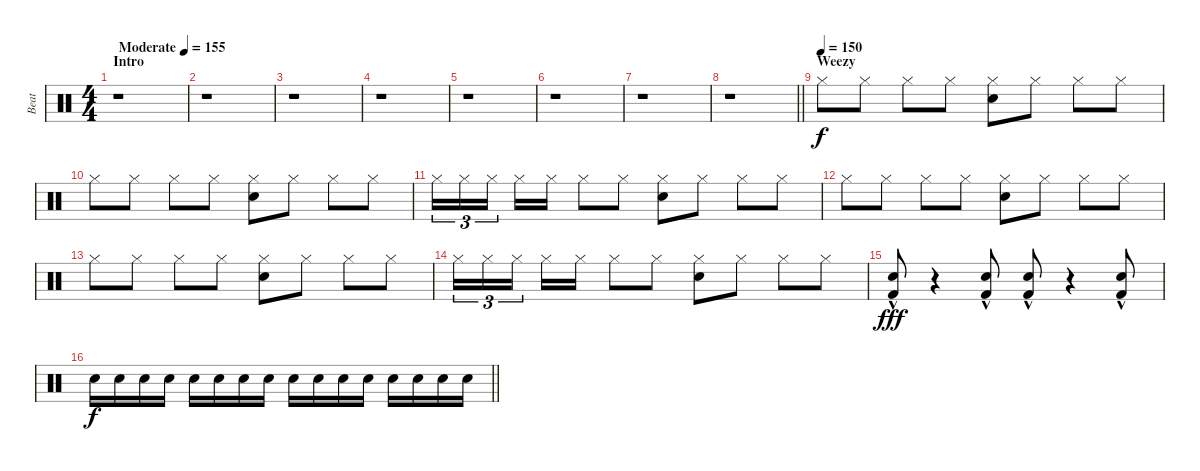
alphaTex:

\track ("Beat" "Beat") {instrument percussion}
\staff {score}
\articulation defaults
\ts (4 4)
\section ("" "Intro")
\tempo (155 "Moderate")
\clef neutral
\ks c
r.1{dy f} |
r.1 |
r.1 |
r.1 |
r.1 |
r.1 |
r.1 |
\barLineRight lightlight
r.1 |
\section ("" "Weezy")
\tempo (150)
"Hi-Hat (closed)".8 "Hi-Hat (closed)".8 "Hi-Hat (closed)".8 "Hi-Hat (closed)".8 ("Hi-Hat (closed)" "Hand Clap (hit)").8 "Hi-Hat (closed)".8 "Hi-Hat (closed)".8 "Hi-Hat (closed)".8 |
"Hi-Hat (closed)".8 "Hi-Hat (closed)".8 "Hi-Hat (closed)".8 "Hi-Hat (closed)".8 ("Hi-Hat (closed)" "Hand Clap (hit)").8 "Hi-Hat (closed)".8 "Hi-Hat (closed)".8 "Hi-Hat (closed)".8 |
"Hi-Hat (closed)".16{tu (3 2)} "Hi-Hat (closed)".16{tu (3 2)} "Hi-Hat (closed)".16{tu (3 2) beam splitsecondary} "Hi-Hat (closed)".16 "Hi-Hat (closed)".16 "Hi-Hat (closed)".8 "Hi-Hat (closed)".8 ("Hi-Hat (closed)" "Hand Clap (hit)").8 "Hi-Hat (closed)".8 "Hi-Hat (closed)".8 "Hi-Hat (closed)".8 |
"Hi-Hat (closed)".8 "Hi-Hat (closed)".8 "Hi-Hat (closed)".8 "Hi-Hat (closed)".8 ("Hi-Hat (closed)" "Hand Clap (hit)").8 "Hi-Hat (closed)".8 "Hi-Hat (closed)".8 "Hi-Hat (closed)".8 |
"Hi-Hat (closed)".8 "Hi-Hat (closed)".8 "Hi-Hat (closed)".8 "Hi-Hat (closed)".8 ("Hi-Hat (closed)" "Hand Clap (hit)").8 "Hi-Hat (closed)".8 "Hi-Hat (closed)".8 "Hi-Hat (closed)".8 |
"Hi-Hat (closed)".16{tu (3 2)} "Hi-Hat (closed)".16{tu (3 2)} "Hi-Hat (closed)".16{tu (3 2) beam splitsecondary} "Hi-Hat (closed)".16 "Hi-Hat (closed)".16 "Hi-Hat (closed)".8 "Hi-Hat (closed)".8 ("Hi-Hat (closed)" "Hand Clap (hit)").8 "Hi-Hat (closed)".8 "Hi-Hat (closed)".8 "Hi-Hat (closed)".8 |
("Snare (hit) 2" "Kick (hit) 2"{hac}).8{dy fff} r.4 ("Snare (hit) 2" "Kick (hit) 2"{hac}).8 ("Snare (hit) 2" "Kick (hit) 2"{hac}).8 r.4 ("Snare (hit) 2" "Kick (hit) 2"{hac}).8 |
\barLineRight lightlight "Snare (hit) 2".16{dy f} "Snare (hit) 2".16 "Snare (hit) 2".16 "Snare (hit) 2".16 "Snare (hit) 2".16 "Snare (hit) 2".16 "Snare (hit) 2".16 "Snare (hit) 2".16 "Snare (hit) 2".16 "Snare (hit) 2".16 "Snare (hit) 2".16 "Snare (hit) 2".16{volume 0} "Snare (hit) 2".16 "Snare (hit) 2".16 "Snare (hit) 2".16 "Snare (hit) 2".16
